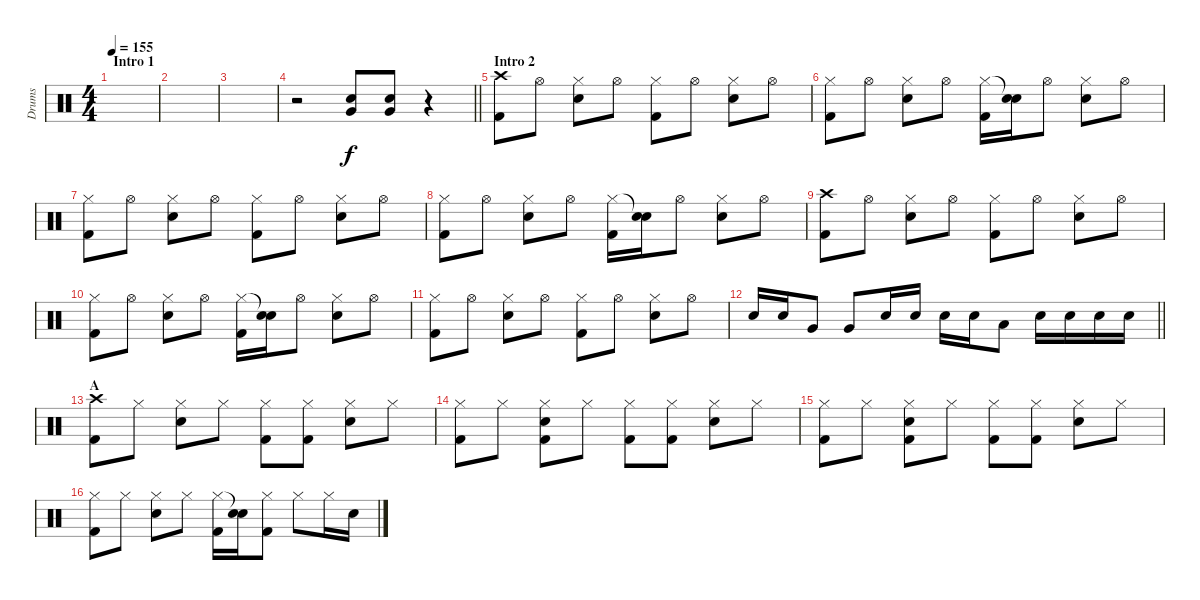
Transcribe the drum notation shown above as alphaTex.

\track ("Drums" "Drums") {instrument percussion}
\staff {score}
\articulation defaults
\ts (4 4)
\section ("" "Intro 1")
\tempo 155
\clef neutral
\ks c
|
|
|
\barLineRight lightlight
r.2 ("Snare (hit) 2" "Very Low Tom (hit)").8 ("Snare (hit) 2" "Very Low Tom (hit)").8 r.4 |
\section ("" "Intro 2")
("Crash high (hit)" "Kick (hit) 2").8 "Hi-Hat (open)".8 ("Hi-Hat (closed)" "Snare (hit) 2").8 "Hi-Hat (open)".8 ("Hi-Hat (closed)" "Kick (hit) 2").8 "Hi-Hat (open)".8 ("Hi-Hat (closed)" "Snare (hit) 2").8 "Hi-Hat (open)".8 |
("Hi-Hat (closed)" "Kick (hit) 2").8 "Hi-Hat (open)".8 ("Hi-Hat (closed)" "Snare (hit) 2").8 "Hi-Hat (open)".8 ("Hi-Hat (closed)" "Kick (hit) 2").16 ("Snare (hit)"{t} "Snare (hit) 2").16 "Hi-Hat (open)".8 ("Hi-Hat (closed)" "Snare (hit) 2").8 "Hi-Hat (open)".8 |
("Hi-Hat (closed)" "Kick (hit) 2").8 "Hi-Hat (open)".8 ("Hi-Hat (closed)" "Snare (hit) 2").8 "Hi-Hat (open)".8 ("Hi-Hat (closed)" "Kick (hit) 2").8 "Hi-Hat (open)".8 ("Hi-Hat (closed)" "Snare (hit) 2").8 "Hi-Hat (open)".8 |
("Hi-Hat (closed)" "Kick (hit) 2").8 "Hi-Hat (open)".8 ("Hi-Hat (closed)" "Snare (hit) 2").8 "Hi-Hat (open)".8 ("Hi-Hat (closed)" "Kick (hit) 2").16 ("Snare (hit)"{t} "Snare (hit) 2").16 "Hi-Hat (open)".8 ("Hi-Hat (closed)" "Snare (hit) 2").8 "Hi-Hat (open)".8 |
("Crash high (hit)" "Kick (hit) 2").8 "Hi-Hat (open)".8 ("Hi-Hat (closed)" "Snare (hit) 2").8 "Hi-Hat (open)".8 ("Hi-Hat (closed)" "Kick (hit) 2").8 "Hi-Hat (open)".8 ("Hi-Hat (closed)" "Snare (hit) 2").8 "Hi-Hat (open)".8 |
("Hi-Hat (closed)" "Kick (hit) 2").8 "Hi-Hat (open)".8 ("Hi-Hat (closed)" "Snare (hit) 2").8 "Hi-Hat (open)".8 ("Hi-Hat (closed)" "Kick (hit) 2").16 ("Snare (hit)"{t} "Snare (hit) 2").16 "Hi-Hat (open)".8 ("Hi-Hat (closed)" "Snare (hit) 2").8 "Hi-Hat (open)".8 |
("Hi-Hat (closed)" "Kick (hit) 2").8 "Hi-Hat (open)".8 ("Hi-Hat (closed)" "Snare (hit) 2").8 "Hi-Hat (open)".8 ("Hi-Hat (closed)" "Kick (hit) 2").8 "Hi-Hat (open)".8 ("Hi-Hat (closed)" "Snare (hit) 2").8 "Hi-Hat (open)".8 |
\barLineRight lightlight "Snare (hit) 2".16 "Snare (hit) 2".16 "Very Low Tom (hit)".8 "Very Low Tom (hit)".8 "Snare (hit) 2".16 "Snare (hit) 2".16 "Snare (hit) 2".16 "Snare (hit) 2".16 "Low Tom (hit)".8 "Snare (hit) 2".16 "Snare (hit) 2".16 "Snare (hit) 2".16 "Snare (hit) 2".16
|
\section ("" "A")
("Crash high (hit)" "Kick (hit) 2").8 "Hi-Hat (closed)".8 ("Hi-Hat (closed)" "Snare (hit) 2").8 "Hi-Hat (closed)".8 ("Hi-Hat (closed)" "Kick (hit) 2").8 ("Hi-Hat (closed)" "Kick (hit) 2").8 ("Hi-Hat (closed)" "Snare (hit) 2").8 "Hi-Hat (closed)".8 |
("Hi-Hat (closed)" "Kick (hit) 2").8 "Hi-Hat (closed)".8 ("Hi-Hat (closed)" "Snare (hit) 2" "Kick (hit) 2").8 "Hi-Hat (closed)".8 ("Hi-Hat (closed)" "Kick (hit) 2").8 ("Hi-Hat (closed)" "Kick (hit) 2").8 ("Hi-Hat (closed)" "Snare (hit) 2").8 "Hi-Hat (closed)".8 |
("Hi-Hat (closed)" "Kick (hit) 2").8 "Hi-Hat (closed)".8 ("Hi-Hat (closed)" "Snare (hit) 2" "Kick (hit) 2").8 "Hi-Hat (closed)".8 ("Hi-Hat (closed)" "Kick (hit) 2").8 ("Hi-Hat (closed)" "Kick (hit) 2").8 ("Hi-Hat (closed)" "Snare (hit) 2").8 "Hi-Hat (closed)".8 |
("Hi-Hat (closed)" "Kick (hit) 2").8 "Hi-Hat (closed)".8 ("Hi-Hat (closed)" "Snare (hit) 2").8 "Hi-Hat (closed)".8 ("Hi-Hat (closed)" "Kick (hit) 2").16 ("Snare (hit)"{t} "Snare (hit) 2").16 ("Hi-Hat (closed)" "Kick (hit) 2").8 "Hi-Hat (closed)".8 "Hi-Hat (closed)".16 "Snare (hit) 2".16
